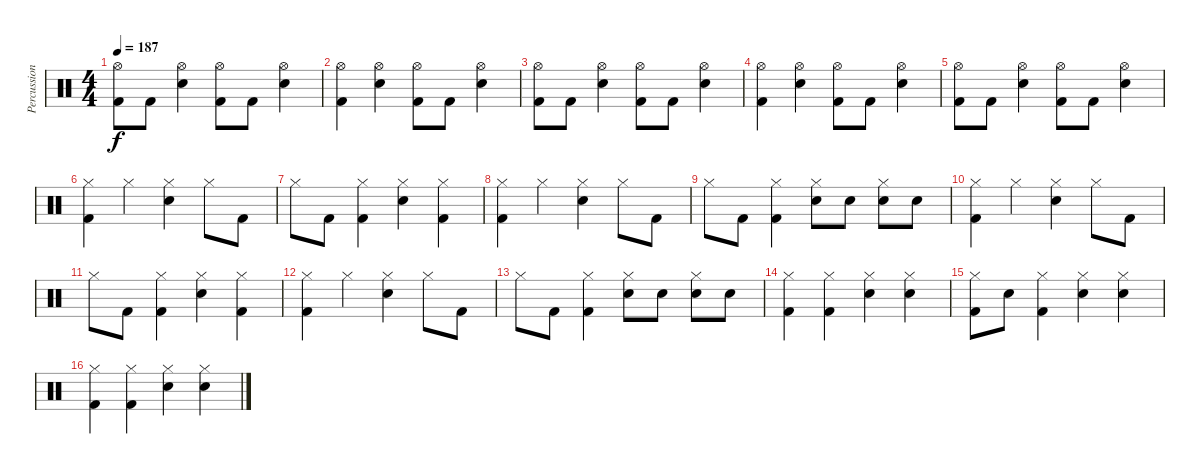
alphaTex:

\track ("Percussion" "Percussion") {instrument percussion}
\staff {score}
\articulation defaults
\ts (4 4)
\tempo 187
\clef neutral
\ks c
("Hi-Hat (open)" "Kick (hit) 2").8{dy f} "Kick (hit) 2".8 ("Hi-Hat (open)" "Snare (hit) 2").4 ("Hi-Hat (open)" "Kick (hit) 2").8 "Kick (hit) 2".8 ("Hi-Hat (open)" "Snare (hit) 2").4 |
("Hi-Hat (open)" "Kick (hit) 2").4 ("Hi-Hat (open)" "Snare (hit) 2").4 ("Hi-Hat (open)" "Kick (hit) 2").8 "Kick (hit) 2".8 ("Hi-Hat (open)" "Snare (hit) 2").4 |
("Hi-Hat (open)" "Kick (hit) 2").8 "Kick (hit) 2".8 ("Hi-Hat (open)" "Snare (hit) 2").4 ("Hi-Hat (open)" "Kick (hit) 2").8 "Kick (hit) 2".8 ("Hi-Hat (open)" "Snare (hit) 2").4 |
("Hi-Hat (open)" "Kick (hit) 2").4 ("Hi-Hat (open)" "Snare (hit) 2").4 ("Hi-Hat (open)" "Kick (hit) 2").8 "Kick (hit) 2".8 ("Hi-Hat (open)" "Snare (hit) 2").4 |
("Hi-Hat (open)" "Kick (hit) 2").8 "Kick (hit) 2".8 ("Hi-Hat (open)" "Snare (hit) 2").4 ("Hi-Hat (open)" "Kick (hit) 2").8 "Kick (hit) 2".8 ("Hi-Hat (open)" "Snare (hit) 2").4 |
("Hi-Hat (closed)" "Kick (hit) 2").4 "Hi-Hat (closed)".4 ("Hi-Hat (closed)" "Snare (hit) 2").4 "Hi-Hat (closed)".8 "Kick (hit) 2".8 |
"Hi-Hat (closed)".8 "Kick (hit) 2".8 ("Hi-Hat (closed)" "Kick (hit) 2").4 ("Hi-Hat (closed)" "Snare (hit) 2").4 ("Hi-Hat (closed)" "Kick (hit) 2").4 |
("Hi-Hat (closed)" "Kick (hit) 2").4 "Hi-Hat (closed)".4 ("Hi-Hat (closed)" "Snare (hit) 2").4 "Hi-Hat (closed)".8 "Kick (hit) 2".8 |
"Hi-Hat (closed)".8 "Kick (hit) 2".8 ("Hi-Hat (closed)" "Kick (hit) 2").4 ("Hi-Hat (closed)" "Snare (hit) 2").8 "Snare (hit) 2".8 ("Hi-Hat (closed)" "Snare (hit) 2").8 "Snare (hit) 2".8 |
("Hi-Hat (closed)" "Kick (hit) 2").4 "Hi-Hat (closed)".4 ("Hi-Hat (closed)" "Snare (hit) 2").4 "Hi-Hat (closed)".8 "Kick (hit) 2".8 |
"Hi-Hat (closed)".8 "Kick (hit) 2".8 ("Hi-Hat (closed)" "Kick (hit) 2").4 ("Hi-Hat (closed)" "Snare (hit) 2").4 ("Hi-Hat (closed)" "Kick (hit) 2").4 |
("Hi-Hat (closed)" "Kick (hit) 2").4 "Hi-Hat (closed)".4 ("Hi-Hat (closed)" "Snare (hit) 2").4 "Hi-Hat (closed)".8 "Kick (hit) 2".8 |
"Hi-Hat (closed)".8 "Kick (hit) 2".8 ("Hi-Hat (closed)" "Kick (hit) 2").4 ("Hi-Hat (closed)" "Snare (hit) 2").8 "Snare (hit) 2".8 ("Hi-Hat (closed)" "Snare (hit) 2").8 "Snare (hit) 2".8 |
("Hi-Hat (closed)" "Kick (hit) 2").4 ("Hi-Hat (closed)" "Kick (hit) 2").4 ("Hi-Hat (closed)" "Snare (hit) 2").4 ("Hi-Hat (closed)" "Snare (hit) 2").4 |
("Hi-Hat (closed)" "Kick (hit) 2").8 "Snare (hit) 2".8 ("Hi-Hat (closed)" "Kick (hit) 2").4 ("Hi-Hat (closed)" "Snare (hit) 2").4 ("Hi-Hat (closed)" "Snare (hit) 2").4 |
("Hi-Hat (closed)" "Kick (hit) 2").4 ("Hi-Hat (closed)" "Kick (hit) 2").4 ("Hi-Hat (closed)" "Snare (hit) 2").4 ("Hi-Hat (closed)" "Snare (hit) 2").4
